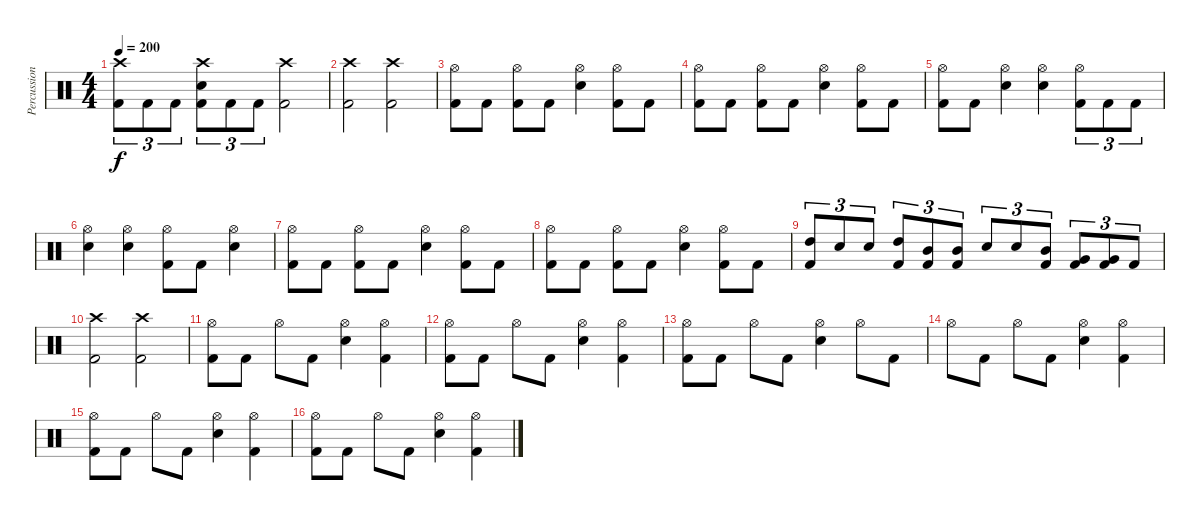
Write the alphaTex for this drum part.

\track ("Percussion" "Percussion") {instrument percussion}
\staff {score}
\articulation defaults
\ts (4 4)
\tempo 200
\clef neutral
\ks c
("Crash high (hit)" "Kick (hit) 2").8{tu (3 2) dy f} "Kick (hit) 2".8{tu (3 2)} "Kick (hit) 2".8{tu (3 2)} ("Crash high (hit)" "Snare (hit) 2" "Kick (hit) 2").8{tu (3 2)} "Kick (hit) 2".8{tu (3 2)} "Kick (hit) 2".8{tu (3 2)} ("Crash high (hit)" "Kick (hit) 2").2 |
("Crash high (hit)" "Kick (hit) 2").2 ("Crash high (hit)" "Kick (hit) 2").2 |
("Hi-Hat (open)" "Kick (hit) 2").8 "Kick (hit) 2".8 ("Hi-Hat (open)" "Kick (hit) 2").8 "Kick (hit) 2".8 ("Hi-Hat (open)" "Snare (hit) 2").4 ("Hi-Hat (open)" "Kick (hit) 2").8 "Kick (hit) 2".8 |
("Hi-Hat (open)" "Kick (hit) 2").8 "Kick (hit) 2".8 ("Hi-Hat (open)" "Kick (hit) 2").8 "Kick (hit) 2".8 ("Hi-Hat (open)" "Snare (hit) 2").4 ("Hi-Hat (open)" "Kick (hit) 2").8 "Kick (hit) 2".8 |
("Hi-Hat (open)" "Kick (hit) 2").8 "Kick (hit) 2".8 ("Hi-Hat (open)" "Snare (hit) 2").4 ("Hi-Hat (open)" "Snare (hit) 2").4 ("Hi-Hat (open)" "Kick (hit) 2").8{tu (3 2)} "Kick (hit) 2".8{tu (3 2)} "Kick (hit) 2".8{tu (3 2)} |
("Hi-Hat (open)" "Snare (hit) 2").4 ("Hi-Hat (open)" "Snare (hit) 2").4 ("Hi-Hat (open)" "Kick (hit) 2").8 "Kick (hit) 2".8 ("Hi-Hat (open)" "Snare (hit) 2").4 |
("Hi-Hat (open)" "Kick (hit) 2").8 "Kick (hit) 2".8 ("Hi-Hat (open)" "Kick (hit) 2").8 "Kick (hit) 2".8 ("Hi-Hat (open)" "Snare (hit) 2").4 ("Hi-Hat (open)" "Kick (hit) 2").8 "Kick (hit) 2".8 |
("Hi-Hat (open)" "Kick (hit) 2").8 "Kick (hit) 2".8 ("Hi-Hat (open)" "Kick (hit) 2").8 "Kick (hit) 2".8 ("Hi-Hat (open)" "Snare (hit) 2").4 ("Hi-Hat (open)" "Kick (hit) 2").8 "Kick (hit) 2".8 |
("High Tom (hit)" "Kick (hit) 2").8{tu (3 2)} "Snare (hit) 2".8{tu (3 2)} "Snare (hit) 2".8{tu (3 2)} ("High Tom (hit)" "Kick (hit) 2").8{tu (3 2)} ("Mid Tom (hit)" "Kick (hit) 2").8{tu (3 2)} ("Mid Tom (hit)" "Kick (hit) 2").8{tu (3 2)} "Snare (hit) 2".8{tu (3 2)} "Snare (hit) 2".8{tu (3 2)} ("Mid Tom (hit)" "Kick (hit) 2").8{tu (3 2)} ("Very Low Tom (hit)" "Kick (hit) 2").8{tu (3 2)} ("Very Low Tom (hit)" "Kick (hit) 2").8{tu (3 2)} "Kick (hit) 2".8{tu (3 2)} |
("Crash high (hit)" "Kick (hit) 2").2 ("Crash high (hit)" "Kick (hit) 2").2 |
("Hi-Hat (open)" "Kick (hit) 2").8 "Kick (hit) 2".8 "Hi-Hat (open)".8 "Kick (hit) 2".8 ("Hi-Hat (open)" "Snare (hit) 2").4 ("Hi-Hat (open)" "Kick (hit) 2").4 |
("Hi-Hat (open)" "Kick (hit) 2").8 "Kick (hit) 2".8 "Hi-Hat (open)".8 "Kick (hit) 2".8 ("Hi-Hat (open)" "Snare (hit) 2").4 ("Hi-Hat (open)" "Kick (hit) 2").4 |
("Hi-Hat (open)" "Kick (hit) 2").8 "Kick (hit) 2".8 "Hi-Hat (open)".8 "Kick (hit) 2".8 ("Hi-Hat (open)" "Snare (hit) 2").4 "Hi-Hat (open)".8 "Kick (hit) 2".8 |
"Hi-Hat (open)".8 "Kick (hit) 2".8 "Hi-Hat (open)".8 "Kick (hit) 2".8 ("Hi-Hat (open)" "Snare (hit) 2").4 ("Hi-Hat (open)" "Kick (hit) 2").4 |
("Hi-Hat (open)" "Kick (hit) 2").8 "Kick (hit) 2".8 "Hi-Hat (open)".8 "Kick (hit) 2".8 ("Hi-Hat (open)" "Snare (hit) 2").4 ("Hi-Hat (open)" "Kick (hit) 2").4 |
("Hi-Hat (open)" "Kick (hit) 2").8 "Kick (hit) 2".8 "Hi-Hat (open)".8 "Kick (hit) 2".8 ("Hi-Hat (open)" "Snare (hit) 2").4 ("Hi-Hat (open)" "Kick (hit) 2").4
